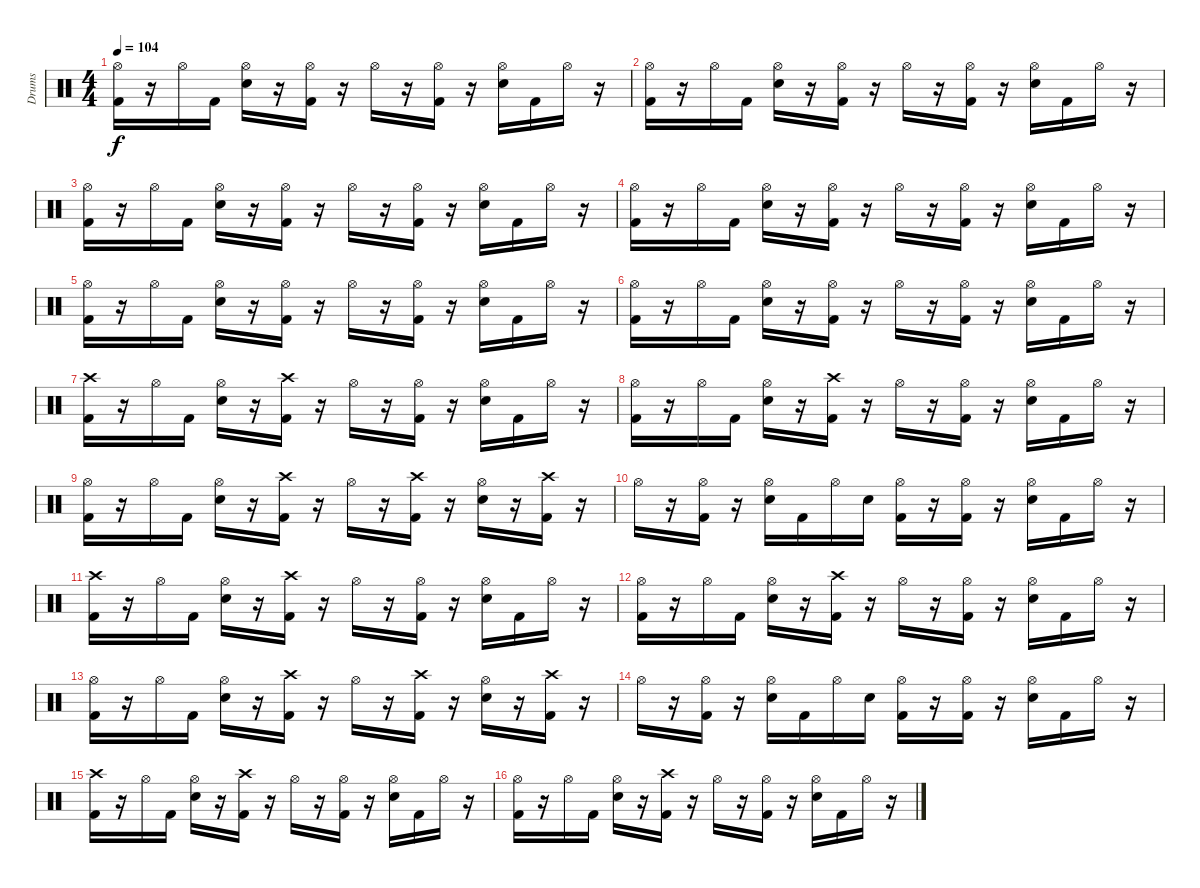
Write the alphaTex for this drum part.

\track ("Drums" "Drums") {instrument percussion}
\staff {score}
\articulation defaults
\ts (4 4)
\tempo 104
\clef neutral
\ks c
("Hi-Hat (open)" "Kick (hit) 2").16{dy f} r.16 "Hi-Hat (open)".16 "Kick (hit) 2".16 ("Hi-Hat (open)" "Snare (hit) 2").16 r.16 ("Hi-Hat (open)" "Kick (hit) 2").16 r.16 "Hi-Hat (open)".16 r.16 ("Hi-Hat (open)" "Kick (hit) 2").16 r.16 ("Hi-Hat (open)" "Snare (hit) 2").16 "Kick (hit) 2".16 "Hi-Hat (open)".16 r.16 |
("Hi-Hat (open)" "Kick (hit) 2").16 r.16 "Hi-Hat (open)".16 "Kick (hit) 2".16 ("Hi-Hat (open)" "Snare (hit) 2").16 r.16 ("Hi-Hat (open)" "Kick (hit) 2").16 r.16 "Hi-Hat (open)".16 r.16 ("Hi-Hat (open)" "Kick (hit) 2").16 r.16 ("Hi-Hat (open)" "Snare (hit) 2").16 "Kick (hit) 2".16 "Hi-Hat (open)".16 r.16 |
("Hi-Hat (open)" "Kick (hit) 2").16 r.16 "Hi-Hat (open)".16 "Kick (hit) 2".16 ("Hi-Hat (open)" "Snare (hit) 2").16 r.16 ("Hi-Hat (open)" "Kick (hit) 2").16 r.16 "Hi-Hat (open)".16 r.16 ("Hi-Hat (open)" "Kick (hit) 2").16 r.16 ("Hi-Hat (open)" "Snare (hit) 2").16 "Kick (hit) 2".16 "Hi-Hat (open)".16 r.16 |
("Hi-Hat (open)" "Kick (hit) 2").16 r.16 "Hi-Hat (open)".16 "Kick (hit) 2".16 ("Hi-Hat (open)" "Snare (hit) 2").16 r.16 ("Hi-Hat (open)" "Kick (hit) 2").16 r.16 "Hi-Hat (open)".16 r.16 ("Hi-Hat (open)" "Kick (hit) 2").16 r.16 ("Hi-Hat (open)" "Snare (hit) 2").16 "Kick (hit) 2".16 "Hi-Hat (open)".16 r.16 |
("Hi-Hat (open)" "Kick (hit) 2").16 r.16 "Hi-Hat (open)".16 "Kick (hit) 2".16 ("Hi-Hat (open)" "Snare (hit) 2").16 r.16 ("Hi-Hat (open)" "Kick (hit) 2").16 r.16 "Hi-Hat (open)".16 r.16 ("Hi-Hat (open)" "Kick (hit) 2").16 r.16 ("Hi-Hat (open)" "Snare (hit) 2").16 "Kick (hit) 2".16 "Hi-Hat (open)".16 r.16 |
("Hi-Hat (open)" "Kick (hit) 2").16 r.16 "Hi-Hat (open)".16 "Kick (hit) 2".16 ("Hi-Hat (open)" "Snare (hit) 2").16 r.16 ("Hi-Hat (open)" "Kick (hit) 2").16 r.16 "Hi-Hat (open)".16 r.16 ("Hi-Hat (open)" "Kick (hit) 2").16 r.16 ("Hi-Hat (open)" "Snare (hit) 2").16 "Kick (hit) 2".16 "Hi-Hat (open)".16 r.16 |
("Crash high (hit)" "Kick (hit) 2").16 r.16 "Hi-Hat (open)".16 "Kick (hit) 2".16 ("Hi-Hat (open)" "Snare (hit) 2").16 r.16 ("Crash high (hit)" "Kick (hit) 2").16 r.16 "Hi-Hat (open)".16 r.16 ("Hi-Hat (open)" "Kick (hit) 2").16 r.16 ("Hi-Hat (open)" "Snare (hit) 2").16 "Kick (hit) 2".16 "Hi-Hat (open)".16 r.16 |
("Hi-Hat (open)" "Kick (hit) 2").16 r.16 "Hi-Hat (open)".16 "Kick (hit) 2".16 ("Hi-Hat (open)" "Snare (hit) 2").16 r.16 ("Crash high (hit)" "Kick (hit) 2").16 r.16 "Hi-Hat (open)".16 r.16 ("Hi-Hat (open)" "Kick (hit) 2").16 r.16 ("Hi-Hat (open)" "Snare (hit) 2").16 "Kick (hit) 2".16 "Hi-Hat (open)".16 r.16 |
("Hi-Hat (open)" "Kick (hit) 2").16 r.16 "Hi-Hat (open)".16 "Kick (hit) 2".16 ("Hi-Hat (open)" "Snare (hit) 2").16 r.16 ("Crash high (hit)" "Kick (hit) 2").16 r.16 "Hi-Hat (open)".16 r.16 ("Crash high (hit)" "Kick (hit) 2").16 r.16 ("Hi-Hat (open)" "Snare (hit) 2").16 r.16 ("Crash high (hit)" "Kick (hit) 2").16 r.16 |
"Hi-Hat (open)".16 r.16 ("Hi-Hat (open)" "Kick (hit) 2").16 r.16 ("Hi-Hat (open)" "Snare (hit) 2").16 "Kick (hit) 2".16 "Hi-Hat (open)".16 "Snare (hit) 2".16 ("Hi-Hat (open)" "Kick (hit) 2").16 r.16 ("Hi-Hat (open)" "Kick (hit) 2").16 r.16 ("Hi-Hat (open)" "Snare (hit) 2").16 "Kick (hit) 2".16 "Hi-Hat (open)".16 r.16 |
("Crash high (hit)" "Kick (hit) 2").16 r.16 "Hi-Hat (open)".16 "Kick (hit) 2".16 ("Hi-Hat (open)" "Snare (hit) 2").16 r.16 ("Crash high (hit)" "Kick (hit) 2").16 r.16 "Hi-Hat (open)".16 r.16 ("Hi-Hat (open)" "Kick (hit) 2").16 r.16 ("Hi-Hat (open)" "Snare (hit) 2").16 "Kick (hit) 2".16 "Hi-Hat (open)".16 r.16 |
("Hi-Hat (open)" "Kick (hit) 2").16 r.16 "Hi-Hat (open)".16 "Kick (hit) 2".16 ("Hi-Hat (open)" "Snare (hit) 2").16 r.16 ("Crash high (hit)" "Kick (hit) 2").16 r.16 "Hi-Hat (open)".16 r.16 ("Hi-Hat (open)" "Kick (hit) 2").16 r.16 ("Hi-Hat (open)" "Snare (hit) 2").16 "Kick (hit) 2".16 "Hi-Hat (open)".16 r.16 |
("Hi-Hat (open)" "Kick (hit) 2").16 r.16 "Hi-Hat (open)".16 "Kick (hit) 2".16 ("Hi-Hat (open)" "Snare (hit) 2").16 r.16 ("Crash high (hit)" "Kick (hit) 2").16 r.16 "Hi-Hat (open)".16 r.16 ("Crash high (hit)" "Kick (hit) 2").16 r.16 ("Hi-Hat (open)" "Snare (hit) 2").16 r.16 ("Crash high (hit)" "Kick (hit) 2").16 r.16 |
"Hi-Hat (open)".16 r.16 ("Hi-Hat (open)" "Kick (hit) 2").16 r.16 ("Hi-Hat (open)" "Snare (hit) 2").16 "Kick (hit) 2".16 "Hi-Hat (open)".16 "Snare (hit) 2".16 ("Hi-Hat (open)" "Kick (hit) 2").16 r.16 ("Hi-Hat (open)" "Kick (hit) 2").16 r.16 ("Hi-Hat (open)" "Snare (hit) 2").16 "Kick (hit) 2".16 "Hi-Hat (open)".16 r.16 |
("Crash high (hit)" "Kick (hit) 2").16 r.16 "Hi-Hat (open)".16 "Kick (hit) 2".16 ("Hi-Hat (open)" "Snare (hit) 2").16 r.16 ("Crash high (hit)" "Kick (hit) 2").16 r.16 "Hi-Hat (open)".16 r.16 ("Hi-Hat (open)" "Kick (hit) 2").16 r.16 ("Hi-Hat (open)" "Snare (hit) 2").16 "Kick (hit) 2".16 "Hi-Hat (open)".16 r.16 |
("Hi-Hat (open)" "Kick (hit) 2").16 r.16 "Hi-Hat (open)".16 "Kick (hit) 2".16 ("Hi-Hat (open)" "Snare (hit) 2").16 r.16 ("Crash high (hit)" "Kick (hit) 2").16 r.16 "Hi-Hat (open)".16 r.16 ("Hi-Hat (open)" "Kick (hit) 2").16 r.16 ("Hi-Hat (open)" "Snare (hit) 2").16 "Kick (hit) 2".16 "Hi-Hat (open)".16 r.16
